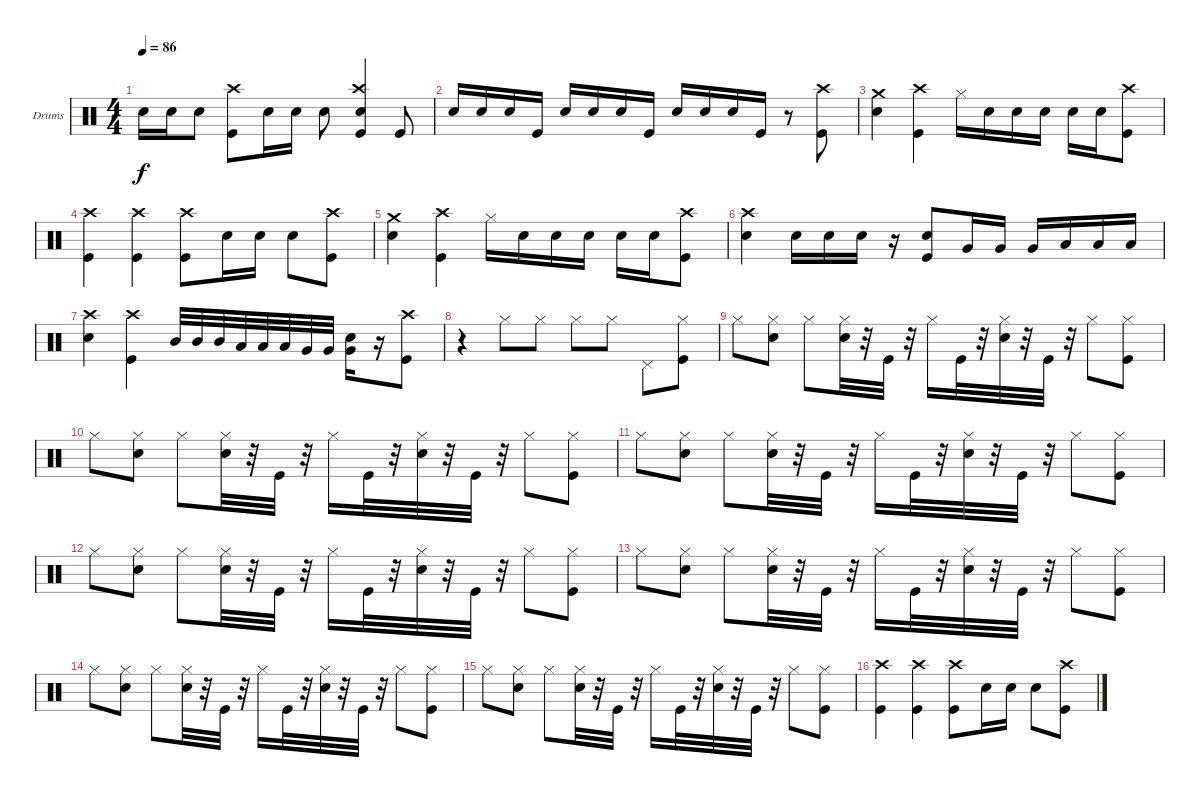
\bracketExtendMode groupsimilarinstruments
\firstSystemTrackNameOrientation horizontal
\otherSystemsTrackNameOrientation horizontal
\track ("Drumkit" "Drums") {instrument percussion}
\staff {score}
\articulation defaults
\ts (4 4)
\tempo 86
\clef neutral
\ks c "Snare (hit) 2".16{dy f} "Snare (hit) 2".16 "Snare (hit) 2".8
("Crash high (hit)" "Kick (hit)").8 "Snare (hit) 2".16 "Snare (hit) 2".16 "Snare (hit) 2".8 ("Crash high (hit)" "Snare (hit) 2" "Kick (hit)").4 "Kick (hit)".8 |
"Snare (hit) 2".16 "Snare (hit) 2".16 "Snare (hit) 2".16 "Kick (hit)".16 "Snare (hit) 2".16 "Snare (hit) 2".16 "Snare (hit) 2".16 "Kick (hit)".16 "Snare (hit) 2".16 "Snare (hit) 2".16 "Snare (hit) 2".16 "Kick (hit)".16 r.8 ("Crash high (hit)" "Kick (hit)").8 |
("Crash medium (hit)" "Snare (hit) 2").4 ("Crash high (hit)" "Kick (hit)").4 "Hi-Hat (closed)".16 "Snare (hit) 2".16 "Snare (hit) 2".16 "Snare (hit) 2".16 "Snare (hit) 2".16 "Snare (hit) 2".16 ("Crash high (hit)" "Kick (hit)").8 |
("Crash high (hit)" "Kick (hit)").4 ("Crash high (hit)" "Kick (hit)").4 ("Crash high (hit)" "Kick (hit)").8 "Snare (hit) 2".16 "Snare (hit) 2".16 "Snare (hit) 2".8 ("Crash high (hit)" "Kick (hit)").8 |
("Crash medium (hit)" "Snare (hit) 2").4 ("Crash high (hit)" "Kick (hit)").4 "Hi-Hat (closed)".16 "Snare (hit) 2".16 "Snare (hit) 2".16 "Snare (hit) 2".16 "Snare (hit) 2".16 "Snare (hit) 2".16 ("Crash high (hit)" "Kick (hit)").8 |
("Crash high (hit)" "Snare (hit) 2").4 "Snare (hit) 2".16 "Snare (hit) 2".16 "Snare (hit) 2".16 r.16 ("Kick (hit)" "Snare (hit) 2").8 "Very Low Tom (hit)".16 "Very Low Tom (hit)".16 "Very Low Tom (hit)".16 "Low Tom (hit)".16 "Low Tom (hit)".16 "Low Tom (hit)".16 |
("Crash high (hit)" "Snare (hit) 2").4 ("Crash high (hit)" "Kick (hit)").4 "Mid Tom (hit)".32 "Mid Tom (hit)".32 "Mid Tom (hit)".32 "Low Tom (hit)".32 "Low Tom (hit)".32 "Low Tom (hit)".32 "Very Low Tom (hit)".32 "Very Low Tom (hit)".32 ("Snare (hit) 2" "Very Low Tom (hit)").16 r.16 ("Crash high (hit)" "Kick (hit)").8 |
r.4 "Hi-Hat (closed)".8 "Hi-Hat (closed)".8 "Hi-Hat (closed)".8 "Hi-Hat (closed)".8 "Pedal Hi-Hat (hit)".8 ("Hi-Hat (closed)" "Kick (hit)").8 |
"Hi-Hat (closed)".8 ("Hi-Hat (closed)" "Snare (hit) 2").8 "Hi-Hat (closed)".8 ("Hi-Hat (closed)" "Snare (hit) 2").32 r.32 "Kick (hit)".32 r.32 "Hi-Hat (closed)".16 "Kick (hit)".32 r.32 ("Hi-Hat (closed)" "Snare (hit) 2").32 r.32 "Kick (hit)".32 r.32 "Hi-Hat (closed)".8 ("Hi-Hat (closed)" "Kick (hit)").8 |
"Hi-Hat (closed)".8 ("Hi-Hat (closed)" "Snare (hit) 2").8 "Hi-Hat (closed)".8 ("Hi-Hat (closed)" "Snare (hit) 2").32 r.32 "Kick (hit)".32 r.32 "Hi-Hat (closed)".16 "Kick (hit)".32 r.32 ("Hi-Hat (closed)" "Snare (hit) 2").32 r.32 "Kick (hit)".32 r.32 "Hi-Hat (closed)".8 ("Hi-Hat (closed)" "Kick (hit)").8 |
"Hi-Hat (closed)".8 ("Hi-Hat (closed)" "Snare (hit) 2").8 "Hi-Hat (closed)".8 ("Hi-Hat (closed)" "Snare (hit) 2").32 r.32 "Kick (hit)".32 r.32 "Hi-Hat (closed)".16 "Kick (hit)".32 r.32 ("Hi-Hat (closed)" "Snare (hit) 2").32 r.32 "Kick (hit)".32 r.32 "Hi-Hat (closed)".8 ("Hi-Hat (closed)" "Kick (hit)").8 |
"Hi-Hat (closed)".8 ("Hi-Hat (closed)" "Snare (hit) 2").8 "Hi-Hat (closed)".8 ("Hi-Hat (closed)" "Snare (hit) 2").32 r.32 "Kick (hit)".32 r.32 "Hi-Hat (closed)".16 "Kick (hit)".32 r.32 ("Hi-Hat (closed)" "Snare (hit) 2").32 r.32 "Kick (hit)".32 r.32 "Hi-Hat (closed)".8 ("Hi-Hat (closed)" "Kick (hit)").8 |
"Hi-Hat (closed)".8 ("Hi-Hat (closed)" "Snare (hit) 2").8 "Hi-Hat (closed)".8 ("Hi-Hat (closed)" "Snare (hit) 2").32 r.32 "Kick (hit)".32 r.32 "Hi-Hat (closed)".16 "Kick (hit)".32 r.32 ("Hi-Hat (closed)" "Snare (hit) 2").32 r.32 "Kick (hit)".32 r.32 "Hi-Hat (closed)".8 ("Hi-Hat (closed)" "Kick (hit)").8 |
"Hi-Hat (closed)".8 ("Hi-Hat (closed)" "Snare (hit) 2").8 "Hi-Hat (closed)".8 ("Hi-Hat (closed)" "Snare (hit) 2").32 r.32 "Kick (hit)".32 r.32 "Hi-Hat (closed)".16 "Kick (hit)".32 r.32 ("Hi-Hat (closed)" "Snare (hit) 2").32 r.32 "Kick (hit)".32 r.32 "Hi-Hat (closed)".8 ("Hi-Hat (closed)" "Kick (hit)").8 |
"Hi-Hat (closed)".8 ("Hi-Hat (closed)" "Snare (hit) 2").8 "Hi-Hat (closed)".8 ("Hi-Hat (closed)" "Snare (hit) 2").32 r.32 "Kick (hit)".32 r.32 "Hi-Hat (closed)".16 "Kick (hit)".32 r.32 ("Hi-Hat (closed)" "Snare (hit) 2").32 r.32 "Kick (hit)".32 r.32 "Hi-Hat (closed)".8 ("Hi-Hat (closed)" "Kick (hit)").8 |
("Crash high (hit)" "Kick (hit)").4 ("Crash high (hit)" "Kick (hit)").4 ("Crash high (hit)" "Kick (hit)").8 "Snare (hit) 2".16 "Snare (hit) 2".16 "Snare (hit) 2".8 ("Crash high (hit)" "Kick (hit)").8
